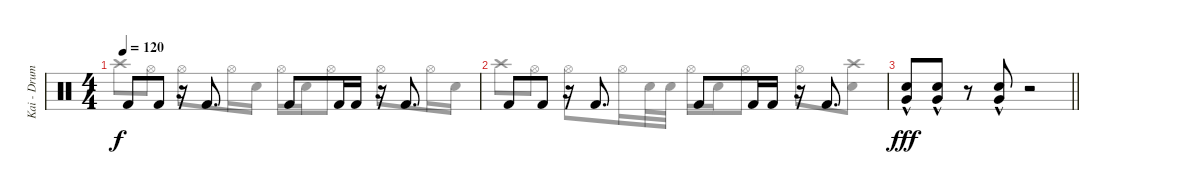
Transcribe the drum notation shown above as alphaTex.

\track ("Kai - Drums " "Kai - Drum") {instrument percussion}
\staff {score}
\articulation defaults
\voice
\ts (4 4)
\tempo 120
\clef neutral
\ks c "Kick (hit) 2".8{dy f} "Kick (hit) 2".8
r.16 "Kick (hit) 2".8{d} "Kick (hit) 2".8 "Kick (hit) 2".16 "Kick (hit) 2".16 r.16 "Kick (hit) 2".8{d} |
"Kick (hit) 2".8 "Kick (hit) 2".8 r.16 "Kick (hit) 2".8{d} "Kick (hit) 2".8 "Kick (hit) 2".16 "Kick (hit) 2".16 r.16 "Kick (hit) 2".8{d} |
\barLineRight lightlight
("Electric Snare (hit)" "Very Low Tom (hit)"{hac}).8{dy fff} ("Electric Snare (hit)" "Very Low Tom (hit)"{hac}).8 r.8 ("Electric Snare (hit)" "Very Low Tom (hit)"{hac}).8 r.2 |
\voice
\clef neutral
\ottava regular
\simile none
\ks c "Crash high (hit)".8{dy f} "Hi-Hat (open)".8 "Hi-Hat (open)".8 "Hi-Hat (open)".16 "Electric Snare (hit)".16 "Hi-Hat (open)".16 "Electric Snare (hit)".16 "Hi-Hat (open)".8 "Hi-Hat (open)".8 "Hi-Hat (open)".16 "Electric Snare (hit)".16
|
"Crash high (hit)".8 "Hi-Hat (open)".8 "Hi-Hat (open)".8 "Hi-Hat (open)".16 "Electric Snare (hit)".32 "Electric Snare (hit)".32 "Hi-Hat (open)".16 "Electric Snare (hit)".16 "Hi-Hat (open)".8 "Hi-Hat (open)".8 ("Crash high (hit)" "Electric Snare (hit)").8 |
\barLineRight lightlight
|
